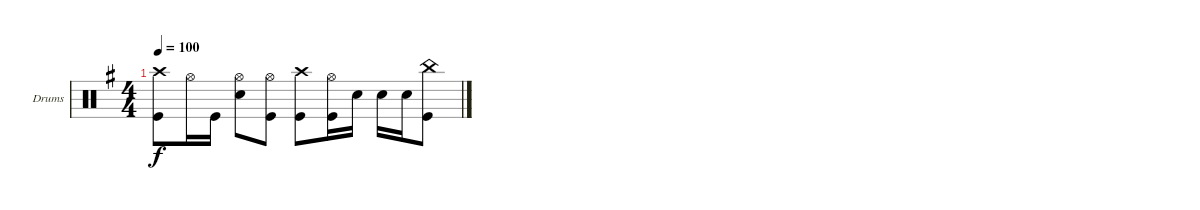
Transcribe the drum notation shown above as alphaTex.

\bracketExtendMode groupsimilarinstruments
\firstSystemTrackNameOrientation horizontal
\otherSystemsTrackNameOrientation horizontal
\track ("drums (Anton Zulganov)" "Drums") {instrument percussion}
\staff {score}
\articulation defaults
\ts (4 4)
\tempo 100
\clef neutral
\ks eminor
("Kick (hit)" "Crash high (hit)").8{dy f} "Hi-Hat (open)".16 "Kick (hit)".16 ("Hi-Hat (open)" "Snare (hit) 2").8 ("Hi-Hat (open)" "Kick (hit)").8 ("Kick (hit)" "Crash high (hit)").8 ("Hi-Hat (open)" "Kick (hit)").16 "Snare (hit) 2".16 "Snare (hit) 2".16 "Snare (hit) 2".16 ("Kick (hit)" "China (hit)").8
